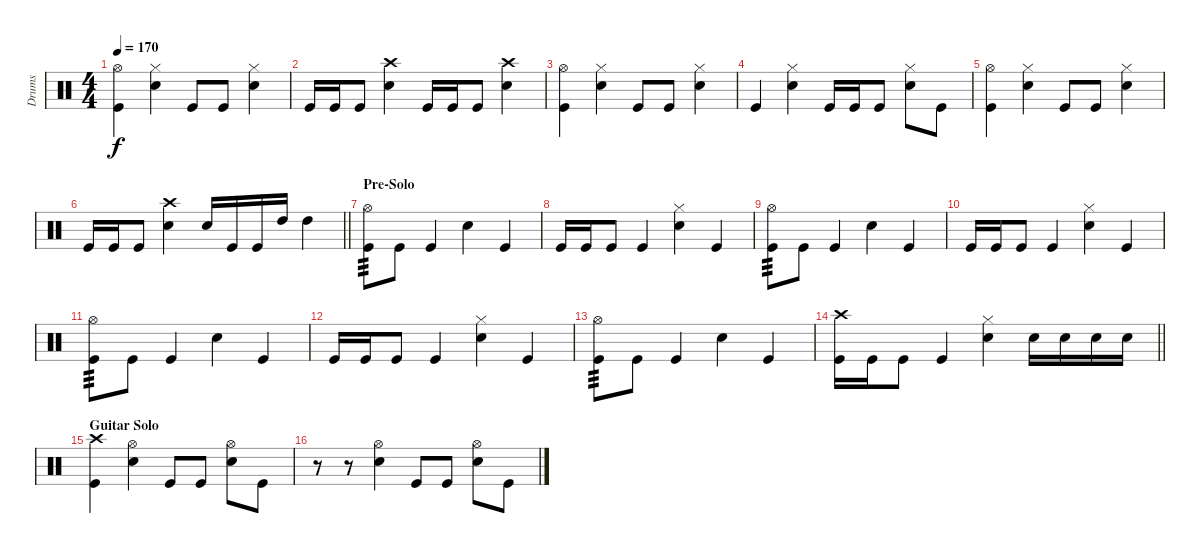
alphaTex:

\track ("Drums" "Drums") {instrument percussion}
\staff {score}
\articulation defaults
\ts (4 4)
\tempo 170
\clef neutral
\ks c
("Hi-Hat (open)" "Kick (hit)").4{dy f} ("Hi-Hat (closed)" "Snare (hit) 2").4 "Kick (hit)".8 "Kick (hit)".8 ("Hi-Hat (closed)" "Snare (hit) 2").4 |
"Kick (hit)".16 "Kick (hit)".16 "Kick (hit)".8 ("Crash high (hit)" "Snare (hit) 2").4 "Kick (hit)".16 "Kick (hit)".16 "Kick (hit)".8 ("Crash high (hit)" "Snare (hit) 2").4 |
("Hi-Hat (open)" "Kick (hit)").4 ("Hi-Hat (closed)" "Snare (hit) 2").4 "Kick (hit)".8 "Kick (hit)".8 ("Hi-Hat (closed)" "Snare (hit) 2").4 |
"Kick (hit)".4 ("Hi-Hat (closed)" "Snare (hit) 2").4 "Kick (hit)".16 "Kick (hit)".16 "Kick (hit)".8 ("Hi-Hat (closed)" "Snare (hit) 2").8 "Kick (hit)".8 |
("Hi-Hat (open)" "Kick (hit)").4 ("Hi-Hat (closed)" "Snare (hit) 2").4 "Kick (hit)".8 "Kick (hit)".8 ("Hi-Hat (closed)" "Snare (hit) 2").4 |
\barLineRight lightlight "Kick (hit)".16 "Kick (hit)".16 "Kick (hit)".8
("Crash high (hit)" "Snare (hit) 2").4 "Snare (hit) 2".16 "Kick (hit)".16 "Kick (hit)".16 "High Tom (hit)".16 "High Tom (hit)".4 |
\section ("" "Pre-Solo")
("Hi-Hat (open)" "Kick (hit)").8{tp 3} "Kick (hit)".8 "Kick (hit)".4 "Snare (hit) 2".4 "Kick (hit)".4 |
"Kick (hit)".16 "Kick (hit)".16 "Kick (hit)".8 "Kick (hit)".4 ("Hi-Hat (closed)" "Snare (hit) 2").4 "Kick (hit)".4 |
("Hi-Hat (open)" "Kick (hit)").8{tp 3} "Kick (hit)".8 "Kick (hit)".4 "Snare (hit) 2".4 "Kick (hit)".4 |
"Kick (hit)".16 "Kick (hit)".16 "Kick (hit)".8 "Kick (hit)".4 ("Hi-Hat (closed)" "Snare (hit) 2").4 "Kick (hit)".4 |
("Hi-Hat (open)" "Kick (hit)").8{tp 3} "Kick (hit)".8 "Kick (hit)".4 "Snare (hit) 2".4 "Kick (hit)".4 |
"Kick (hit)".16 "Kick (hit)".16 "Kick (hit)".8 "Kick (hit)".4 ("Hi-Hat (closed)" "Snare (hit) 2").4 "Kick (hit)".4 |
("Hi-Hat (open)" "Kick (hit)").8{tp 3} "Kick (hit)".8 "Kick (hit)".4 "Snare (hit) 2".4 "Kick (hit)".4 |
\barLineRight lightlight
("Crash high (hit)" "Kick (hit)").16 "Kick (hit)".16 "Kick (hit)".8 "Kick (hit)".4 ("Hi-Hat (closed)" "Snare (hit) 2").4 "Snare (hit) 2".16 "Snare (hit) 2".16 "Snare (hit) 2".16 "Snare (hit) 2".16 |
\section ("" "Guitar Solo")
("Crash high (hit)" "Kick (hit)").4 ("Hi-Hat (open)" "Snare (hit) 2").4 "Kick (hit)".8 "Kick (hit)".8 ("Hi-Hat (open)" "Snare (hit) 2").8 "Kick (hit)".8 |
r.8 r.8 ("Hi-Hat (open)" "Snare (hit) 2").4 "Kick (hit)".8 "Kick (hit)".8 ("Hi-Hat (open)" "Snare (hit) 2").8 "Kick (hit)".8
